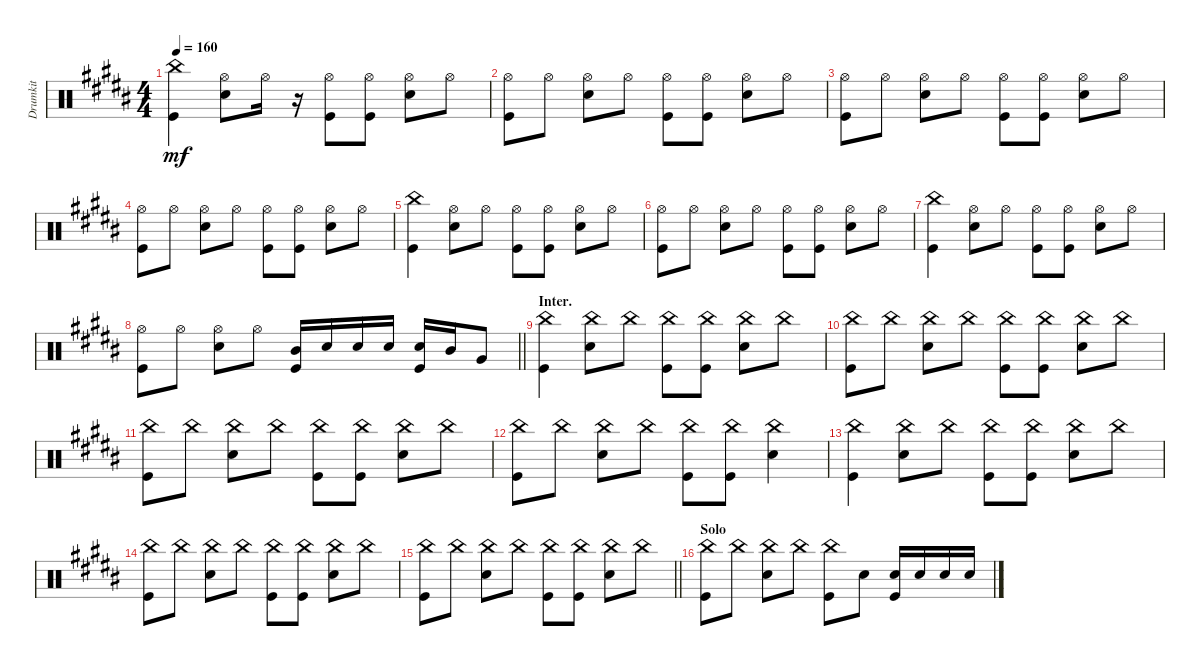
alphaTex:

\track ("Drumkit" "Drumkit") {instrument percussion}
\staff {score}
\articulation defaults
\ts (4 4)
\tempo 160
\clef neutral
\ks b
("Kick (hit)" "China (hit)").4{dy mf} ("Hi-Hat (open)" "Snare (hit) 2").8 "Hi-Hat (open)".16 r.16 ("Hi-Hat (open)" "Kick (hit)").8 ("Kick (hit)" "Hi-Hat (open)").8 ("Hi-Hat (open)" "Snare (hit) 2").8 "Hi-Hat (open)".8 |
("Hi-Hat (open)" "Kick (hit)").8 "Hi-Hat (open)".8 ("Hi-Hat (open)" "Snare (hit) 2").8 "Hi-Hat (open)".8 ("Hi-Hat (open)" "Kick (hit)").8 ("Hi-Hat (open)" "Kick (hit)").8 ("Hi-Hat (open)" "Snare (hit) 2").8 "Hi-Hat (open)".8 |
("Hi-Hat (open)" "Kick (hit)").8 "Hi-Hat (open)".8 ("Hi-Hat (open)" "Snare (hit) 2").8 "Hi-Hat (open)".8 ("Hi-Hat (open)" "Kick (hit)").8 ("Hi-Hat (open)" "Kick (hit)").8 ("Hi-Hat (open)" "Snare (hit) 2").8 "Hi-Hat (open)".8 |
("Hi-Hat (open)" "Kick (hit)").8 "Hi-Hat (open)".8 ("Hi-Hat (open)" "Snare (hit) 2").8 "Hi-Hat (open)".8 ("Hi-Hat (open)" "Kick (hit)").8 ("Hi-Hat (open)" "Kick (hit)").8 ("Hi-Hat (open)" "Snare (hit) 2").8 "Hi-Hat (open)".8 |
("Kick (hit)" "China (hit)").4 ("Hi-Hat (open)" "Snare (hit) 2").8 "Hi-Hat (open)".8 ("Hi-Hat (open)" "Kick (hit)").8 ("Hi-Hat (open)" "Kick (hit)").8 ("Hi-Hat (open)" "Snare (hit) 2").8 "Hi-Hat (open)".8 |
("Hi-Hat (open)" "Kick (hit)").8 "Hi-Hat (open)".8 ("Hi-Hat (open)" "Snare (hit) 2").8 "Hi-Hat (open)".8 ("Hi-Hat (open)" "Kick (hit)").8 ("Hi-Hat (open)" "Kick (hit)").8 ("Hi-Hat (open)" "Snare (hit) 2").8 "Hi-Hat (open)".8 |
("Kick (hit)" "China (hit)").4 ("Hi-Hat (open)" "Snare (hit) 2").8 "Hi-Hat (open)".8 ("Hi-Hat (open)" "Kick (hit)").8 ("Hi-Hat (open)" "Kick (hit)").8 ("Hi-Hat (open)" "Snare (hit) 2").8 "Hi-Hat (open)".8 |
\barLineRight lightlight
("Hi-Hat (open)" "Kick (hit)").8 "Hi-Hat (open)".8 ("Hi-Hat (open)" "Snare (hit) 2").8 "Hi-Hat (open)".8 ("Mid Tom (hit)" "Kick (hit)").16 "Snare (hit) 2".16 "Snare (hit) 2".16 "Snare (hit) 2".16 ("Snare (hit) 2" "Kick (hit)").16 "Mid Tom (hit)".16 "Very Low Tom (hit)".8 |
\section ("" "Inter.")
("Kick (hit)" "China (hit)").4 ("China (hit)" "Snare (hit) 2").8 "China (hit)".8 ("China (hit)" "Kick (hit)").8 ("China (hit)" "Kick (hit)").8 ("China (hit)" "Snare (hit) 2").8 "China (hit)".8 |
("Kick (hit)" "China (hit)").8 "China (hit)".8 ("China (hit)" "Snare (hit) 2").8 "China (hit)".8 ("China (hit)" "Kick (hit)").8 ("China (hit)" "Kick (hit)").8 ("China (hit)" "Snare (hit) 2").8 "China (hit)".8 |
("Kick (hit)" "China (hit)").8 "China (hit)".8 ("China (hit)" "Snare (hit) 2").8 "China (hit)".8 ("China (hit)" "Kick (hit)").8 ("China (hit)" "Kick (hit)").8 ("China (hit)" "Snare (hit) 2").8 "China (hit)".8 |
("Kick (hit)" "China (hit)").8 "China (hit)".8 ("China (hit)" "Snare (hit) 2").8 "China (hit)".8 ("China (hit)" "Kick (hit)").8 ("China (hit)" "Kick (hit)").8 ("Snare (hit) 2" "China (hit)").4 |
("China (hit)" "Kick (hit)").4 ("Snare (hit) 2" "China (hit)").8 "China (hit)".8 ("China (hit)" "Kick (hit)").8 ("China (hit)" "Kick (hit)").8 ("China (hit)" "Snare (hit) 2").8 "China (hit)".8 |
("China (hit)" "Kick (hit)").8 "China (hit)".8 ("China (hit)" "Snare (hit) 2").8 "China (hit)".8 ("China (hit)" "Kick (hit)").8 ("China (hit)" "Kick (hit)").8 ("China (hit)" "Snare (hit) 2").8 "China (hit)".8 |
\barLineRight lightlight
("China (hit)" "Kick (hit)").8 "China (hit)".8 ("China (hit)" "Snare (hit) 2").8 "China (hit)".8 ("China (hit)" "Kick (hit)").8 ("China (hit)" "Kick (hit)").8 ("China (hit)" "Snare (hit) 2").8 "China (hit)".8 |
\section ("" "Solo")
("Kick (hit)" "China (hit)").8 "China (hit)".8 ("China (hit)" "Snare (hit) 2").8 "China (hit)".8 ("China (hit)" "Kick (hit)").8 "Snare (hit) 2".8 ("Snare (hit) 2" "Kick (hit)").16 "Snare (hit) 2".16 "Snare (hit) 2".16 "Snare (hit) 2".16
